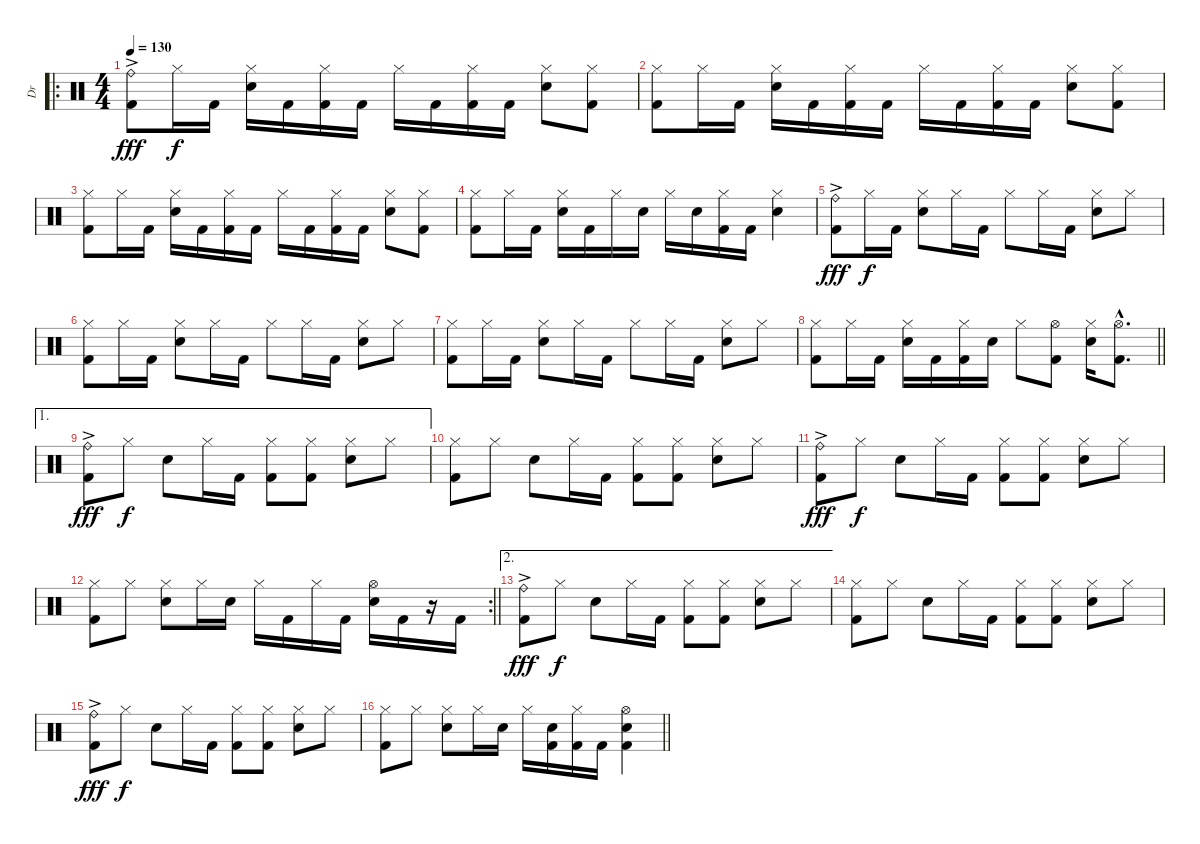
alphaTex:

\track ("Dr" "Dr") {instrument percussion}
\staff {score}
\articulation defaults
\ro
\ts (4 4)
\tempo 130
\clef neutral
\ks c
("Ride (bell)"{ac} "Kick (hit) 2"{ac}).8{dy fff} "Hi-Hat (closed)".16{dy f} "Kick (hit) 2".16 ("Hi-Hat (closed)" "Electric Snare (hit)").16 "Kick (hit) 2".16 ("Hi-Hat (closed)" "Kick (hit) 2").16 "Kick (hit) 2".16 "Hi-Hat (closed)".16 "Kick (hit) 2".16 ("Hi-Hat (closed)" "Kick (hit) 2").16 "Kick (hit) 2".16 ("Hi-Hat (closed)" "Electric Snare (hit)").8 ("Hi-Hat (closed)" "Kick (hit) 2").8 |
("Hi-Hat (closed)" "Kick (hit) 2").8 "Hi-Hat (closed)".16 "Kick (hit) 2".16 ("Hi-Hat (closed)" "Electric Snare (hit)").16 "Kick (hit) 2".16 ("Hi-Hat (closed)" "Kick (hit) 2").16 "Kick (hit) 2".16 "Hi-Hat (closed)".16 "Kick (hit) 2".16 ("Hi-Hat (closed)" "Kick (hit) 2").16 "Kick (hit) 2".16 ("Hi-Hat (closed)" "Electric Snare (hit)").8 ("Hi-Hat (closed)" "Kick (hit) 2").8 |
("Hi-Hat (closed)" "Kick (hit) 2").8 "Hi-Hat (closed)".16 "Kick (hit) 2".16 ("Hi-Hat (closed)" "Electric Snare (hit)").16 "Kick (hit) 2".16 ("Hi-Hat (closed)" "Kick (hit) 2").16 "Kick (hit) 2".16 "Hi-Hat (closed)".16 "Kick (hit) 2".16 ("Hi-Hat (closed)" "Kick (hit) 2").16 "Kick (hit) 2".16 ("Hi-Hat (closed)" "Electric Snare (hit)").8 ("Hi-Hat (closed)" "Kick (hit) 2").8 |
("Hi-Hat (closed)" "Kick (hit) 2").8 "Hi-Hat (closed)".16 "Kick (hit) 2".16 ("Hi-Hat (closed)" "Electric Snare (hit)").16 "Kick (hit) 2".16 "Hi-Hat (closed)".16 "Electric Snare (hit)".16 "Hi-Hat (closed)".16 "Electric Snare (hit)".16 ("Hi-Hat (closed)" "Kick (hit) 2").16 "Kick (hit) 2".16 ("Hi-Hat (closed)" "Electric Snare (hit)").4 |
("Ride (bell)"{ac} "Kick (hit) 2"{ac}).8{dy fff} "Hi-Hat (closed)".16{dy f} "Kick (hit) 2".16 ("Hi-Hat (closed)" "Electric Snare (hit)").8 "Hi-Hat (closed)".16 "Kick (hit) 2".16 "Hi-Hat (closed)".8 "Hi-Hat (closed)".16 "Kick (hit) 2".16 ("Hi-Hat (closed)" "Electric Snare (hit)").8 "Hi-Hat (closed)".8 |
("Hi-Hat (closed)" "Kick (hit) 2").8 "Hi-Hat (closed)".16 "Kick (hit) 2".16 ("Hi-Hat (closed)" "Electric Snare (hit)").8 "Hi-Hat (closed)".16 "Kick (hit) 2".16 "Hi-Hat (closed)".8 "Hi-Hat (closed)".16 "Kick (hit) 2".16 ("Hi-Hat (closed)" "Electric Snare (hit)").8 "Hi-Hat (closed)".8 |
("Hi-Hat (closed)" "Kick (hit) 2").8 "Hi-Hat (closed)".16 "Kick (hit) 2".16 ("Hi-Hat (closed)" "Electric Snare (hit)").8 "Hi-Hat (closed)".16 "Kick (hit) 2".16 "Hi-Hat (closed)".8 "Hi-Hat (closed)".16 "Kick (hit) 2".16 ("Hi-Hat (closed)" "Electric Snare (hit)").8 "Hi-Hat (closed)".8 |
\barLineRight lightlight
("Hi-Hat (closed)" "Kick (hit) 2").8 "Hi-Hat (closed)".16 "Kick (hit) 2".16 ("Hi-Hat (closed)" "Electric Snare (hit)").16 "Kick (hit) 2".16 ("Hi-Hat (closed)" "Kick (hit) 2").16 "Electric Snare (hit)".16 "Hi-Hat (closed)".8 ("Hi-Hat (open)" "Kick (hit) 2").8 ("Hi-Hat (closed)" "Electric Snare (hit)").16 ("Hi-Hat (open)"{hac} "Kick (hit) 2"{hac}).8{d} |
\ae 1
("Ride (bell)"{ac} "Kick (hit) 2"{ac}).8{dy fff} "Hi-Hat (closed)".8{dy f} "Electric Snare (hit)".8 "Hi-Hat (closed)".16 "Kick (hit) 2".16 ("Hi-Hat (closed)" "Kick (hit) 2").8 ("Hi-Hat (closed)" "Kick (hit) 2").8 ("Hi-Hat (closed)" "Electric Snare (hit)").8 "Hi-Hat (closed)".8 |
("Hi-Hat (closed)" "Kick (hit) 2").8 "Hi-Hat (closed)".8 "Electric Snare (hit)".8 "Hi-Hat (closed)".16 "Kick (hit) 2".16 ("Hi-Hat (closed)" "Kick (hit) 2").8 ("Hi-Hat (closed)" "Kick (hit) 2").8 ("Hi-Hat (closed)" "Electric Snare (hit)").8 "Hi-Hat (closed)".8 |
("Ride (bell)"{ac} "Kick (hit) 2"{ac}).8{dy fff} "Hi-Hat (closed)".8{dy f} "Electric Snare (hit)".8 "Hi-Hat (closed)".16 "Kick (hit) 2".16 ("Hi-Hat (closed)" "Kick (hit) 2").8 ("Hi-Hat (closed)" "Kick (hit) 2").8 ("Hi-Hat (closed)" "Electric Snare (hit)").8 "Hi-Hat (closed)".8 |
\rc 2
\barLineRight lightlight
("Hi-Hat (closed)" "Kick (hit) 2").8 "Hi-Hat (closed)".8 ("Hi-Hat (closed)" "Electric Snare (hit)").8 "Hi-Hat (closed)".16 "Electric Snare (hit)".16 "Hi-Hat (closed)".16 "Kick (hit) 2".16 "Hi-Hat (closed)".16 "Kick (hit) 2".16 ("Hi-Hat (open)" "Electric Snare (hit)").16 "Kick (hit) 2".16 r.16 "Kick (hit) 2".16 |
\ae 2
("Ride (bell)"{ac} "Kick (hit) 2"{ac}).8{dy fff} "Hi-Hat (closed)".8{dy f} "Electric Snare (hit)".8 "Hi-Hat (closed)".16 "Kick (hit) 2".16 ("Hi-Hat (closed)" "Kick (hit) 2").8 ("Hi-Hat (closed)" "Kick (hit) 2").8 ("Hi-Hat (closed)" "Electric Snare (hit)").8 "Hi-Hat (closed)".8 |
("Hi-Hat (closed)" "Kick (hit) 2").8 "Hi-Hat (closed)".8 "Electric Snare (hit)".8 "Hi-Hat (closed)".16 "Kick (hit) 2".16 ("Hi-Hat (closed)" "Kick (hit) 2").8 ("Hi-Hat (closed)" "Kick (hit) 2").8 ("Hi-Hat (closed)" "Electric Snare (hit)").8 "Hi-Hat (closed)".8 |
("Ride (bell)"{ac} "Kick (hit) 2"{ac}).8{dy fff} "Hi-Hat (closed)".8{dy f} "Electric Snare (hit)".8 "Hi-Hat (closed)".16 "Kick (hit) 2".16 ("Hi-Hat (closed)" "Kick (hit) 2").8 ("Hi-Hat (closed)" "Kick (hit) 2").8 ("Hi-Hat (closed)" "Electric Snare (hit)").8 "Hi-Hat (closed)".8 |
\barLineRight lightlight
("Hi-Hat (closed)" "Kick (hit) 2").8 "Hi-Hat (closed)".8 ("Hi-Hat (closed)" "Electric Snare (hit)").8 "Hi-Hat (closed)".16 "Electric Snare (hit)".16 "Hi-Hat (closed)".16 ("Electric Snare (hit)" "Kick (hit) 2").16 ("Hi-Hat (closed)" "Kick (hit) 2").16 "Kick (hit) 2".16 ("Hi-Hat (open)" "Electric Snare (hit)" "Kick (hit) 2").4
